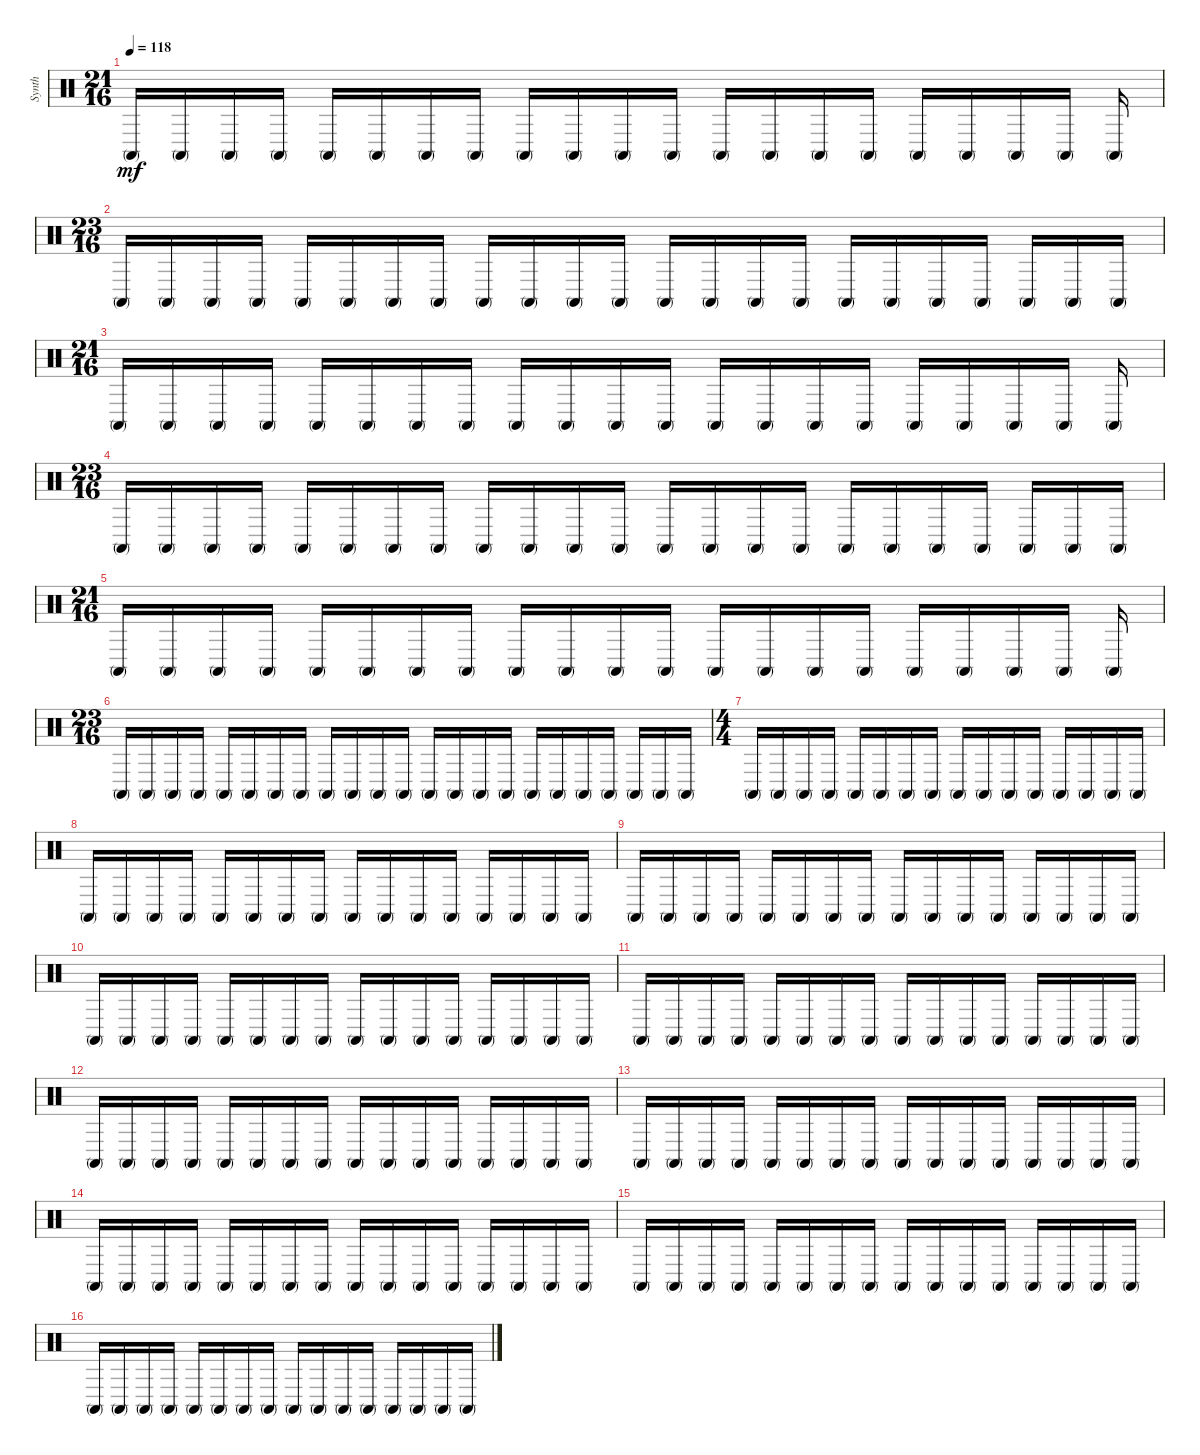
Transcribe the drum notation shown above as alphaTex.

\track ("Synth" "Synth") {instrument percussion}
\staff {score}
\articulation defaults
\ts (21 16)
\tempo 118
\clef neutral
\ks c "Conga high (mute)".16{dy mf} "Conga high (mute)".16 "Conga high (mute)".16 "Conga high (mute)".16 "Conga high (mute)".16 "Conga high (mute)".16 "Conga high (mute)".16 "Conga high (mute)".16 "Conga high (mute)".16 "Conga high (mute)".16 "Conga high (mute)".16 "Conga high (mute)".16 "Conga high (mute)".16 "Conga high (mute)".16 "Conga high (mute)".16 "Conga high (mute)".16 "Conga high (mute)".16 "Conga high (mute)".16 "Conga high (mute)".16 "Conga high (mute)".16 "Conga high (mute)".16
|
\ts (23 16)
"Conga high (mute)".16 "Conga high (mute)".16 "Conga high (mute)".16 "Conga high (mute)".16 "Conga high (mute)".16 "Conga high (mute)".16 "Conga high (mute)".16 "Conga high (mute)".16 "Conga high (mute)".16 "Conga high (mute)".16 "Conga high (mute)".16 "Conga high (mute)".16 "Conga high (mute)".16 "Conga high (mute)".16 "Conga high (mute)".16 "Conga high (mute)".16 "Conga high (mute)".16 "Conga high (mute)".16 "Conga high (mute)".16 "Conga high (mute)".16 "Conga high (mute)".16 "Conga high (mute)".16 "Conga high (mute)".16 |
\ts (21 16)
"Conga high (mute)".16 "Conga high (mute)".16 "Conga high (mute)".16 "Conga high (mute)".16 "Conga high (mute)".16 "Conga high (mute)".16 "Conga high (mute)".16 "Conga high (mute)".16 "Conga high (mute)".16 "Conga high (mute)".16 "Conga high (mute)".16 "Conga high (mute)".16 "Conga high (mute)".16 "Conga high (mute)".16 "Conga high (mute)".16 "Conga high (mute)".16 "Conga high (mute)".16 "Conga high (mute)".16 "Conga high (mute)".16 "Conga high (mute)".16 "Conga high (mute)".16 |
\ts (23 16)
"Conga high (mute)".16 "Conga high (mute)".16 "Conga high (mute)".16 "Conga high (mute)".16 "Conga high (mute)".16 "Conga high (mute)".16 "Conga high (mute)".16 "Conga high (mute)".16 "Conga high (mute)".16 "Conga high (mute)".16 "Conga high (mute)".16 "Conga high (mute)".16 "Conga high (mute)".16 "Conga high (mute)".16 "Conga high (mute)".16 "Conga high (mute)".16 "Conga high (mute)".16 "Conga high (mute)".16 "Conga high (mute)".16 "Conga high (mute)".16 "Conga high (mute)".16 "Conga high (mute)".16 "Conga high (mute)".16 |
\ts (21 16)
"Conga high (mute)".16 "Conga high (mute)".16 "Conga high (mute)".16 "Conga high (mute)".16 "Conga high (mute)".16 "Conga high (mute)".16 "Conga high (mute)".16 "Conga high (mute)".16 "Conga high (mute)".16 "Conga high (mute)".16 "Conga high (mute)".16 "Conga high (mute)".16 "Conga high (mute)".16 "Conga high (mute)".16 "Conga high (mute)".16 "Conga high (mute)".16 "Conga high (mute)".16 "Conga high (mute)".16 "Conga high (mute)".16 "Conga high (mute)".16 "Conga high (mute)".16 |
\ts (23 16)
"Conga high (mute)".16 "Conga high (mute)".16 "Conga high (mute)".16 "Conga high (mute)".16 "Conga high (mute)".16 "Conga high (mute)".16 "Conga high (mute)".16 "Conga high (mute)".16 "Conga high (mute)".16 "Conga high (mute)".16 "Conga high (mute)".16 "Conga high (mute)".16 "Conga high (mute)".16 "Conga high (mute)".16 "Conga high (mute)".16 "Conga high (mute)".16 "Conga high (mute)".16 "Conga high (mute)".16 "Conga high (mute)".16 "Conga high (mute)".16 "Conga high (mute)".16 "Conga high (mute)".16 "Conga high (mute)".16 |
\ts (4 4)
"Conga high (mute)".16 "Conga high (mute)".16 "Conga high (mute)".16 "Conga high (mute)".16 "Conga high (mute)".16 "Conga high (mute)".16 "Conga high (mute)".16 "Conga high (mute)".16 "Conga high (mute)".16 "Conga high (mute)".16 "Conga high (mute)".16 "Conga high (mute)".16 "Conga high (mute)".16 "Conga high (mute)".16 "Conga high (mute)".16 "Conga high (mute)".16 |
"Conga high (mute)".16 "Conga high (mute)".16 "Conga high (mute)".16 "Conga high (mute)".16 "Conga high (mute)".16 "Conga high (mute)".16 "Conga high (mute)".16 "Conga high (mute)".16 "Conga high (mute)".16 "Conga high (mute)".16 "Conga high (mute)".16 "Conga high (mute)".16 "Conga high (mute)".16 "Conga high (mute)".16 "Conga high (mute)".16 "Conga high (mute)".16 |
"Conga high (mute)".16 "Conga high (mute)".16 "Conga high (mute)".16 "Conga high (mute)".16 "Conga high (mute)".16 "Conga high (mute)".16 "Conga high (mute)".16 "Conga high (mute)".16 "Conga high (mute)".16 "Conga high (mute)".16 "Conga high (mute)".16 "Conga high (mute)".16 "Conga high (mute)".16 "Conga high (mute)".16 "Conga high (mute)".16 "Conga high (mute)".16 |
"Conga high (mute)".16 "Conga high (mute)".16 "Conga high (mute)".16 "Conga high (mute)".16 "Conga high (mute)".16 "Conga high (mute)".16 "Conga high (mute)".16 "Conga high (mute)".16 "Conga high (mute)".16 "Conga high (mute)".16 "Conga high (mute)".16 "Conga high (mute)".16 "Conga high (mute)".16 "Conga high (mute)".16 "Conga high (mute)".16 "Conga high (mute)".16 |
"Conga high (mute)".16 "Conga high (mute)".16 "Conga high (mute)".16 "Conga high (mute)".16 "Conga high (mute)".16 "Conga high (mute)".16 "Conga high (mute)".16 "Conga high (mute)".16 "Conga high (mute)".16 "Conga high (mute)".16 "Conga high (mute)".16 "Conga high (mute)".16 "Conga high (mute)".16 "Conga high (mute)".16 "Conga high (mute)".16 "Conga high (mute)".16 |
"Conga high (mute)".16 "Conga high (mute)".16 "Conga high (mute)".16 "Conga high (mute)".16 "Conga high (mute)".16 "Conga high (mute)".16 "Conga high (mute)".16 "Conga high (mute)".16 "Conga high (mute)".16 "Conga high (mute)".16 "Conga high (mute)".16 "Conga high (mute)".16 "Conga high (mute)".16 "Conga high (mute)".16 "Conga high (mute)".16 "Conga high (mute)".16 |
"Conga high (mute)".16 "Conga high (mute)".16 "Conga high (mute)".16 "Conga high (mute)".16 "Conga high (mute)".16 "Conga high (mute)".16 "Conga high (mute)".16 "Conga high (mute)".16 "Conga high (mute)".16 "Conga high (mute)".16 "Conga high (mute)".16 "Conga high (mute)".16 "Conga high (mute)".16 "Conga high (mute)".16 "Conga high (mute)".16 "Conga high (mute)".16 |
"Conga high (mute)".16 "Conga high (mute)".16 "Conga high (mute)".16 "Conga high (mute)".16 "Conga high (mute)".16 "Conga high (mute)".16 "Conga high (mute)".16 "Conga high (mute)".16 "Conga high (mute)".16 "Conga high (mute)".16 "Conga high (mute)".16 "Conga high (mute)".16 "Conga high (mute)".16 "Conga high (mute)".16 "Conga high (mute)".16 "Conga high (mute)".16 |
"Conga high (mute)".16 "Conga high (mute)".16 "Conga high (mute)".16 "Conga high (mute)".16 "Conga high (mute)".16 "Conga high (mute)".16 "Conga high (mute)".16 "Conga high (mute)".16 "Conga high (mute)".16 "Conga high (mute)".16 "Conga high (mute)".16 "Conga high (mute)".16 "Conga high (mute)".16 "Conga high (mute)".16 "Conga high (mute)".16 "Conga high (mute)".16 |
"Conga high (mute)".16 "Conga high (mute)".16 "Conga high (mute)".16 "Conga high (mute)".16 "Conga high (mute)".16 "Conga high (mute)".16 "Conga high (mute)".16 "Conga high (mute)".16 "Conga high (mute)".16 "Conga high (mute)".16 "Conga high (mute)".16 "Conga high (mute)".16 "Conga high (mute)".16 "Conga high (mute)".16 "Conga high (mute)".16 "Conga high (mute)".16
